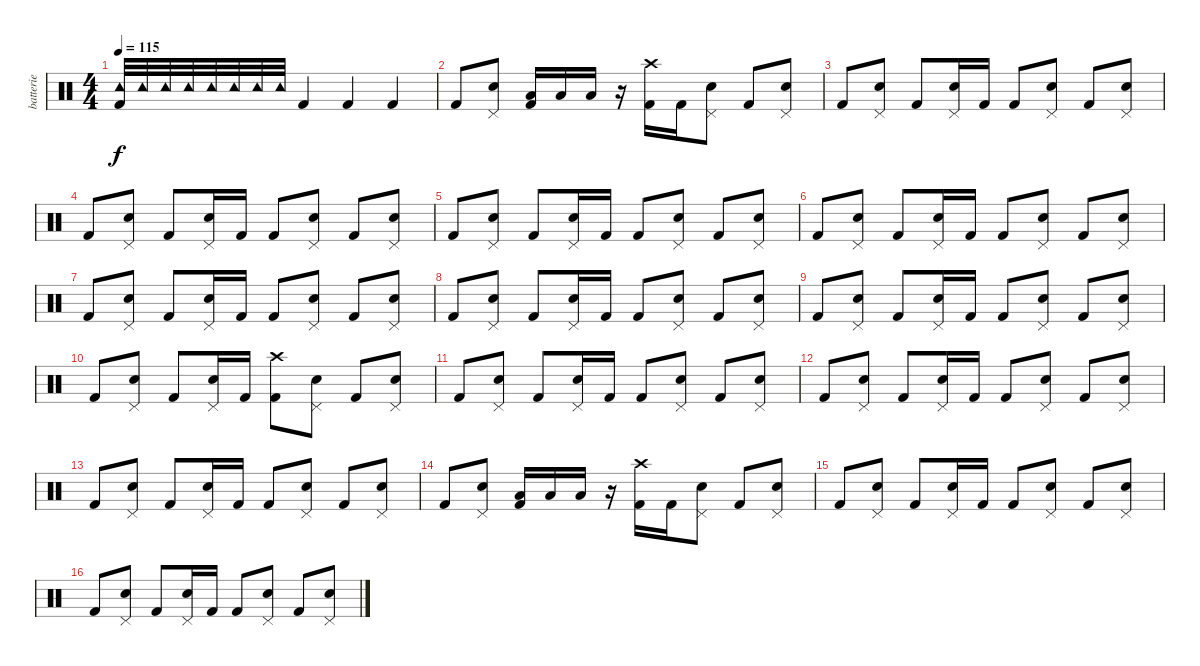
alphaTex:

\track ("batterie" "batterie") {instrument percussion}
\staff {score}
\articulation defaults
\ts (4 4)
\tempo 115
\clef neutral
\ks c
("Tambourine (hit)" "Kick (hit) 2").32{dy f} "Tambourine (hit)".32 "Tambourine (hit)".32 "Tambourine (hit)".32 "Tambourine (hit)".32 "Tambourine (hit)".32 "Tambourine (hit)".32 "Tambourine (hit)".32 "Kick (hit) 2".4 "Kick (hit) 2".4 "Kick (hit) 2".4 |
"Kick (hit) 2".8 ("Pedal Hi-Hat (hit)" "Electric Snare (hit)").8 ("Low Tom (hit)" "Kick (hit) 2").16 "Low Tom (hit)".16 "Low Tom (hit)".16 r.16 ("Crash high (hit)" "Kick (hit) 2").16 "Kick (hit) 2".16 ("Pedal Hi-Hat (hit)" "Electric Snare (hit)").8 "Kick (hit) 2".8 ("Pedal Hi-Hat (hit)" "Electric Snare (hit)").8 |
"Kick (hit) 2".8 ("Pedal Hi-Hat (hit)" "Electric Snare (hit)").8 "Kick (hit) 2".8 ("Pedal Hi-Hat (hit)" "Electric Snare (hit)").16 "Kick (hit) 2".16 "Kick (hit) 2".8 ("Pedal Hi-Hat (hit)" "Electric Snare (hit)").8 "Kick (hit) 2".8 ("Pedal Hi-Hat (hit)" "Electric Snare (hit)").8 |
"Kick (hit) 2".8 ("Pedal Hi-Hat (hit)" "Electric Snare (hit)").8 "Kick (hit) 2".8 ("Pedal Hi-Hat (hit)" "Electric Snare (hit)").16 "Kick (hit) 2".16 "Kick (hit) 2".8 ("Pedal Hi-Hat (hit)" "Electric Snare (hit)").8 "Kick (hit) 2".8 ("Pedal Hi-Hat (hit)" "Electric Snare (hit)").8 |
"Kick (hit) 2".8 ("Pedal Hi-Hat (hit)" "Electric Snare (hit)").8 "Kick (hit) 2".8 ("Pedal Hi-Hat (hit)" "Electric Snare (hit)").16 "Kick (hit) 2".16 "Kick (hit) 2".8 ("Pedal Hi-Hat (hit)" "Electric Snare (hit)").8 "Kick (hit) 2".8 ("Pedal Hi-Hat (hit)" "Electric Snare (hit)").8 |
"Kick (hit) 2".8 ("Pedal Hi-Hat (hit)" "Electric Snare (hit)").8 "Kick (hit) 2".8 ("Pedal Hi-Hat (hit)" "Electric Snare (hit)").16 "Kick (hit) 2".16 "Kick (hit) 2".8 ("Pedal Hi-Hat (hit)" "Electric Snare (hit)").8 "Kick (hit) 2".8 ("Pedal Hi-Hat (hit)" "Electric Snare (hit)").8 |
"Kick (hit) 2".8 ("Pedal Hi-Hat (hit)" "Electric Snare (hit)").8 "Kick (hit) 2".8 ("Pedal Hi-Hat (hit)" "Electric Snare (hit)").16 "Kick (hit) 2".16 "Kick (hit) 2".8 ("Pedal Hi-Hat (hit)" "Electric Snare (hit)").8 "Kick (hit) 2".8 ("Pedal Hi-Hat (hit)" "Electric Snare (hit)").8 |
"Kick (hit) 2".8 ("Pedal Hi-Hat (hit)" "Electric Snare (hit)").8 "Kick (hit) 2".8 ("Pedal Hi-Hat (hit)" "Electric Snare (hit)").16 "Kick (hit) 2".16 "Kick (hit) 2".8 ("Pedal Hi-Hat (hit)" "Electric Snare (hit)").8 "Kick (hit) 2".8 ("Pedal Hi-Hat (hit)" "Electric Snare (hit)").8 |
"Kick (hit) 2".8 ("Pedal Hi-Hat (hit)" "Electric Snare (hit)").8 "Kick (hit) 2".8 ("Pedal Hi-Hat (hit)" "Electric Snare (hit)").16 "Kick (hit) 2".16 "Kick (hit) 2".8 ("Pedal Hi-Hat (hit)" "Electric Snare (hit)").8 "Kick (hit) 2".8 ("Pedal Hi-Hat (hit)" "Electric Snare (hit)").8 |
"Kick (hit) 2".8 ("Pedal Hi-Hat (hit)" "Electric Snare (hit)").8 "Kick (hit) 2".8 ("Pedal Hi-Hat (hit)" "Electric Snare (hit)").16 "Kick (hit) 2".16 ("Crash high (hit)" "Kick (hit) 2").8 ("Pedal Hi-Hat (hit)" "Electric Snare (hit)").8 "Kick (hit) 2".8 ("Pedal Hi-Hat (hit)" "Electric Snare (hit)").8 |
"Kick (hit) 2".8 ("Pedal Hi-Hat (hit)" "Electric Snare (hit)").8 "Kick (hit) 2".8 ("Pedal Hi-Hat (hit)" "Electric Snare (hit)").16 "Kick (hit) 2".16 "Kick (hit) 2".8 ("Pedal Hi-Hat (hit)" "Electric Snare (hit)").8 "Kick (hit) 2".8 ("Pedal Hi-Hat (hit)" "Electric Snare (hit)").8 |
"Kick (hit) 2".8 ("Pedal Hi-Hat (hit)" "Electric Snare (hit)").8 "Kick (hit) 2".8 ("Pedal Hi-Hat (hit)" "Electric Snare (hit)").16 "Kick (hit) 2".16 "Kick (hit) 2".8 ("Pedal Hi-Hat (hit)" "Electric Snare (hit)").8 "Kick (hit) 2".8 ("Pedal Hi-Hat (hit)" "Electric Snare (hit)").8 |
"Kick (hit) 2".8 ("Pedal Hi-Hat (hit)" "Electric Snare (hit)").8 "Kick (hit) 2".8 ("Pedal Hi-Hat (hit)" "Electric Snare (hit)").16 "Kick (hit) 2".16 "Kick (hit) 2".8 ("Pedal Hi-Hat (hit)" "Electric Snare (hit)").8 "Kick (hit) 2".8 ("Pedal Hi-Hat (hit)" "Electric Snare (hit)").8 |
"Kick (hit) 2".8 ("Pedal Hi-Hat (hit)" "Electric Snare (hit)").8 ("Low Tom (hit)" "Kick (hit) 2").16 "Low Tom (hit)".16 "Low Tom (hit)".16 r.16 ("Crash high (hit)" "Kick (hit) 2").16 "Kick (hit) 2".16 ("Pedal Hi-Hat (hit)" "Electric Snare (hit)").8 "Kick (hit) 2".8 ("Pedal Hi-Hat (hit)" "Electric Snare (hit)").8 |
"Kick (hit) 2".8 ("Pedal Hi-Hat (hit)" "Electric Snare (hit)").8 "Kick (hit) 2".8 ("Pedal Hi-Hat (hit)" "Electric Snare (hit)").16 "Kick (hit) 2".16 "Kick (hit) 2".8 ("Pedal Hi-Hat (hit)" "Electric Snare (hit)").8 "Kick (hit) 2".8 ("Pedal Hi-Hat (hit)" "Electric Snare (hit)").8 |
"Kick (hit) 2".8 ("Pedal Hi-Hat (hit)" "Electric Snare (hit)").8 "Kick (hit) 2".8 ("Pedal Hi-Hat (hit)" "Electric Snare (hit)").16 "Kick (hit) 2".16 "Kick (hit) 2".8 ("Pedal Hi-Hat (hit)" "Electric Snare (hit)").8 "Kick (hit) 2".8 ("Pedal Hi-Hat (hit)" "Electric Snare (hit)").8
